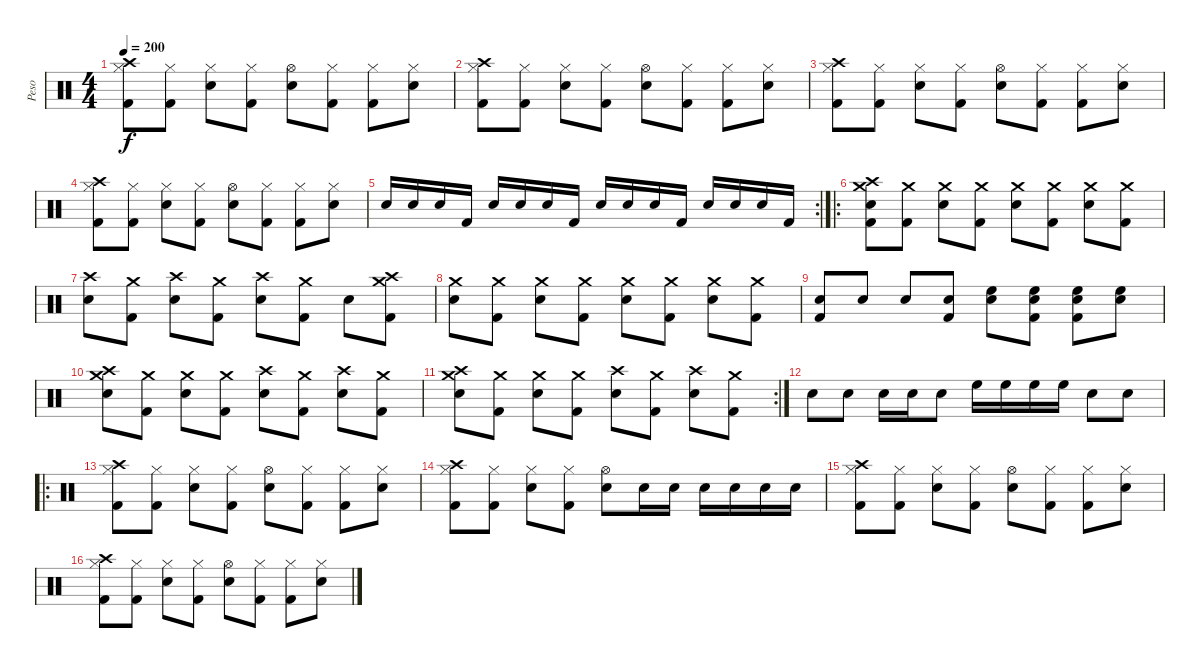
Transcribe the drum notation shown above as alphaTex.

\track ("Peso" "Peso") {instrument percussion}
\staff {score}
\articulation defaults
\ts (4 4)
\tempo 200
\clef neutral
\ks c
("Crash high (hit)" "Hi-Hat (closed)" "Kick (hit) 2").8{dy f} ("Hi-Hat (closed)" "Kick (hit) 2").8 ("Hi-Hat (closed)" "Snare (hit) 2").8 ("Hi-Hat (closed)" "Kick (hit) 2").8 ("Hi-Hat (open)" "Snare (hit) 2").8 ("Hi-Hat (closed)" "Kick (hit) 2").8 ("Hi-Hat (closed)" "Kick (hit) 2").8 ("Hi-Hat (closed)" "Snare (hit) 2").8 |
("Crash high (hit)" "Hi-Hat (closed)" "Kick (hit) 2").8 ("Hi-Hat (closed)" "Kick (hit) 2").8 ("Hi-Hat (closed)" "Snare (hit) 2").8 ("Hi-Hat (closed)" "Kick (hit) 2").8 ("Hi-Hat (open)" "Snare (hit) 2").8 ("Hi-Hat (closed)" "Kick (hit) 2").8 ("Hi-Hat (closed)" "Kick (hit) 2").8 ("Hi-Hat (closed)" "Snare (hit) 2").8 |
("Crash high (hit)" "Hi-Hat (closed)" "Kick (hit) 2").8 ("Hi-Hat (closed)" "Kick (hit) 2").8 ("Hi-Hat (closed)" "Snare (hit) 2").8 ("Hi-Hat (closed)" "Kick (hit) 2").8 ("Hi-Hat (open)" "Snare (hit) 2").8 ("Hi-Hat (closed)" "Kick (hit) 2").8 ("Hi-Hat (closed)" "Kick (hit) 2").8 ("Hi-Hat (closed)" "Snare (hit) 2").8 |
("Crash high (hit)" "Hi-Hat (closed)" "Kick (hit) 2").8 ("Hi-Hat (closed)" "Kick (hit) 2").8 ("Hi-Hat (closed)" "Snare (hit) 2").8 ("Hi-Hat (closed)" "Kick (hit) 2").8 ("Hi-Hat (open)" "Snare (hit) 2").8 ("Hi-Hat (closed)" "Kick (hit) 2").8 ("Hi-Hat (closed)" "Kick (hit) 2").8 ("Hi-Hat (closed)" "Snare (hit) 2").8 |
\rc 2 "Snare (hit) 2".16 "Snare (hit) 2".16 "Snare (hit) 2".16 "Kick (hit) 2".16 "Snare (hit) 2".16 "Snare (hit) 2".16 "Snare (hit) 2".16 "Kick (hit) 2".16 "Snare (hit) 2".16 "Snare (hit) 2".16 "Snare (hit) 2".16 "Kick (hit) 2".16 "Snare (hit) 2".16 "Snare (hit) 2".16 "Snare (hit) 2".16 "Kick (hit) 2".16
|
\ro
("Crash high (hit)" "Crash medium (hit)" "Snare (hit) 2" "Kick (hit) 2").8 ("Crash medium (hit)"{x} "Kick (hit) 2").8 ("Crash medium (hit)" "Snare (hit) 2").8 ("Crash medium (hit)"{x} "Kick (hit) 2").8 ("Crash medium (hit)" "Snare (hit) 2").8 ("Crash medium (hit)"{x} "Kick (hit) 2").8 ("Crash medium (hit)" "Snare (hit) 2").8 ("Crash medium (hit)"{x} "Kick (hit) 2").8 |
("Crash high (hit)" "Snare (hit) 2").8 ("Crash medium (hit)"{x} "Kick (hit) 2").8 ("Crash high (hit)" "Snare (hit) 2").8 ("Crash medium (hit)"{x} "Kick (hit) 2").8 ("Crash high (hit)" "Snare (hit) 2").8 ("Crash medium (hit)"{x} "Kick (hit) 2").8 "Snare (hit) 2".8 ("Crash high (hit)" "Crash medium (hit)"{x} "Kick (hit) 2").8 |
("Crash medium (hit)" "Snare (hit) 2").8 ("Crash medium (hit)"{x} "Kick (hit) 2").8 ("Crash medium (hit)" "Snare (hit) 2").8 ("Crash medium (hit)"{x} "Kick (hit) 2").8 ("Crash medium (hit)" "Snare (hit) 2").8 ("Crash medium (hit)"{x} "Kick (hit) 2").8 ("Crash medium (hit)" "Snare (hit) 2").8 ("Crash medium (hit)"{x} "Kick (hit) 2").8 |
("Snare (hit) 2" "Kick (hit) 2").8 "Snare (hit) 2".8 "Snare (hit) 2".8 ("Snare (hit) 2" "Kick (hit) 2").8 ("High Floor Tom (hit)" "Snare (hit) 2").8 ("High Floor Tom (hit)" "Snare (hit) 2" "Kick (hit) 2").8 ("High Floor Tom (hit)" "Snare (hit) 2" "Kick (hit) 2").8 ("High Floor Tom (hit)" "Snare (hit) 2").8 |
("Crash high (hit)" "Crash medium (hit)" "Snare (hit) 2").8 ("Crash medium (hit)"{x} "Kick (hit) 2").8 ("Crash medium (hit)" "Snare (hit) 2").8 ("Crash medium (hit)"{x} "Kick (hit) 2").8 ("Crash high (hit)" "Snare (hit) 2").8 ("Crash medium (hit)"{x} "Kick (hit) 2").8 ("Crash high (hit)" "Snare (hit) 2").8 ("Crash medium (hit)"{x} "Kick (hit) 2").8 |
\rc 2
("Crash high (hit)" "Crash medium (hit)" "Snare (hit) 2").8 ("Crash medium (hit)"{x} "Kick (hit) 2").8 ("Crash medium (hit)" "Snare (hit) 2").8 ("Crash medium (hit)"{x} "Kick (hit) 2").8 ("Crash high (hit)" "Snare (hit) 2").8 ("Crash medium (hit)"{x} "Kick (hit) 2").8 ("Crash high (hit)" "Snare (hit) 2").8 ("Crash medium (hit)"{x} "Kick (hit) 2").8 |
"Snare (hit) 2".8 "Snare (hit) 2".8 "Snare (hit) 2".16 "Snare (hit) 2".16 "Snare (hit) 2".8 "High Floor Tom (hit)".16 "High Floor Tom (hit)".16 "High Floor Tom (hit)".16 "High Floor Tom (hit)".16 "Snare (hit) 2".8 "Snare (hit) 2".8 |
\ro
("Crash high (hit)" "Hi-Hat (closed)" "Kick (hit) 2").8 ("Hi-Hat (closed)" "Kick (hit) 2").8 ("Hi-Hat (closed)" "Snare (hit) 2").8 ("Hi-Hat (closed)" "Kick (hit) 2").8 ("Hi-Hat (open)" "Snare (hit) 2").8 ("Hi-Hat (closed)" "Kick (hit) 2").8 ("Hi-Hat (closed)" "Kick (hit) 2").8 ("Hi-Hat (closed)" "Snare (hit) 2").8 |
("Crash high (hit)" "Hi-Hat (closed)" "Kick (hit) 2").8 ("Hi-Hat (closed)" "Kick (hit) 2").8 ("Hi-Hat (closed)" "Snare (hit) 2").8 ("Hi-Hat (closed)" "Kick (hit) 2").8 ("Hi-Hat (open)" "Snare (hit) 2").8 "Snare (hit) 2".16 "Snare (hit) 2".16 "Snare (hit) 2".16 "Snare (hit) 2".16 "Snare (hit) 2".16 "Snare (hit) 2".16 |
("Crash high (hit)" "Hi-Hat (closed)" "Kick (hit) 2").8 ("Hi-Hat (closed)" "Kick (hit) 2").8 ("Hi-Hat (closed)" "Snare (hit) 2").8 ("Hi-Hat (closed)" "Kick (hit) 2").8 ("Hi-Hat (open)" "Snare (hit) 2").8 ("Hi-Hat (closed)" "Kick (hit) 2").8 ("Hi-Hat (closed)" "Kick (hit) 2").8 ("Hi-Hat (closed)" "Snare (hit) 2").8 |
("Crash high (hit)" "Hi-Hat (closed)" "Kick (hit) 2").8 ("Hi-Hat (closed)" "Kick (hit) 2").8 ("Hi-Hat (closed)" "Snare (hit) 2").8 ("Hi-Hat (closed)" "Kick (hit) 2").8 ("Hi-Hat (open)" "Snare (hit) 2").8 ("Hi-Hat (closed)" "Kick (hit) 2").8 ("Hi-Hat (closed)" "Kick (hit) 2").8 ("Hi-Hat (closed)" "Snare (hit) 2").8
